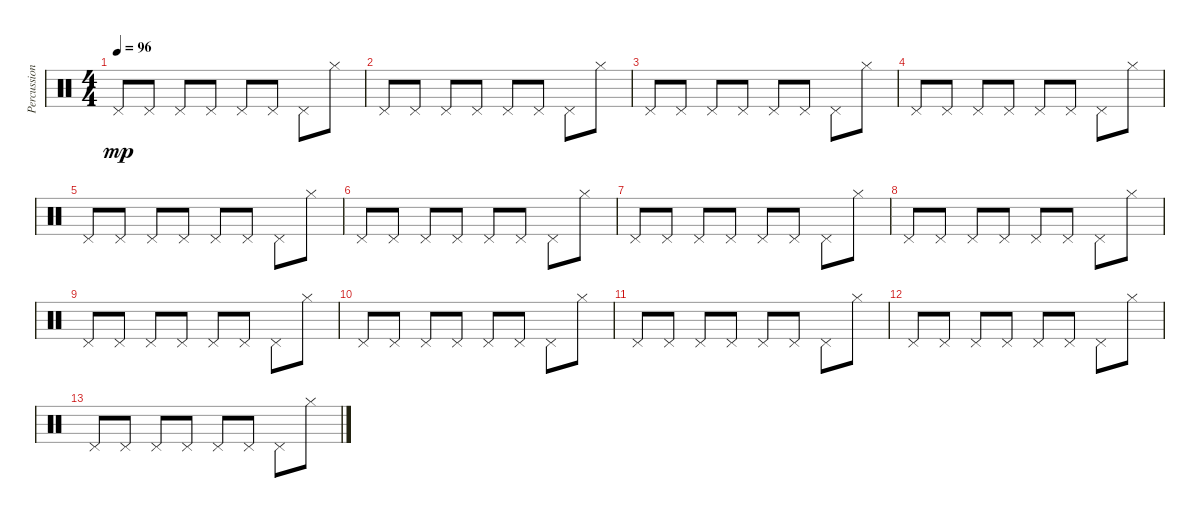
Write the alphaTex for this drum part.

\track ("Percussion" "Percussion") {instrument percussion}
\staff {score}
\articulation defaults
\ts (4 4)
\tempo 96
\clef neutral
\ks c "Pedal Hi-Hat (hit)".8{dy mp} "Pedal Hi-Hat (hit)".8 "Pedal Hi-Hat (hit)".8 "Pedal Hi-Hat (hit)".8 "Pedal Hi-Hat (hit)".8 "Pedal Hi-Hat (hit)".8 "Pedal Hi-Hat (hit)".8 "Hi-Hat (closed)".8
|
"Pedal Hi-Hat (hit)".8 "Pedal Hi-Hat (hit)".8 "Pedal Hi-Hat (hit)".8 "Pedal Hi-Hat (hit)".8 "Pedal Hi-Hat (hit)".8 "Pedal Hi-Hat (hit)".8 "Pedal Hi-Hat (hit)".8 "Hi-Hat (closed)".8 |
"Pedal Hi-Hat (hit)".8 "Pedal Hi-Hat (hit)".8 "Pedal Hi-Hat (hit)".8 "Pedal Hi-Hat (hit)".8 "Pedal Hi-Hat (hit)".8 "Pedal Hi-Hat (hit)".8 "Pedal Hi-Hat (hit)".8 "Hi-Hat (closed)".8 |
"Pedal Hi-Hat (hit)".8 "Pedal Hi-Hat (hit)".8 "Pedal Hi-Hat (hit)".8 "Pedal Hi-Hat (hit)".8 "Pedal Hi-Hat (hit)".8 "Pedal Hi-Hat (hit)".8 "Pedal Hi-Hat (hit)".8 "Hi-Hat (closed)".8 |
"Pedal Hi-Hat (hit)".8 "Pedal Hi-Hat (hit)".8 "Pedal Hi-Hat (hit)".8 "Pedal Hi-Hat (hit)".8 "Pedal Hi-Hat (hit)".8 "Pedal Hi-Hat (hit)".8 "Pedal Hi-Hat (hit)".8 "Hi-Hat (closed)".8 |
"Pedal Hi-Hat (hit)".8 "Pedal Hi-Hat (hit)".8 "Pedal Hi-Hat (hit)".8 "Pedal Hi-Hat (hit)".8 "Pedal Hi-Hat (hit)".8 "Pedal Hi-Hat (hit)".8 "Pedal Hi-Hat (hit)".8 "Hi-Hat (closed)".8 |
"Pedal Hi-Hat (hit)".8 "Pedal Hi-Hat (hit)".8 "Pedal Hi-Hat (hit)".8 "Pedal Hi-Hat (hit)".8 "Pedal Hi-Hat (hit)".8 "Pedal Hi-Hat (hit)".8 "Pedal Hi-Hat (hit)".8 "Hi-Hat (closed)".8 |
"Pedal Hi-Hat (hit)".8 "Pedal Hi-Hat (hit)".8 "Pedal Hi-Hat (hit)".8 "Pedal Hi-Hat (hit)".8 "Pedal Hi-Hat (hit)".8 "Pedal Hi-Hat (hit)".8 "Pedal Hi-Hat (hit)".8 "Hi-Hat (closed)".8 |
"Pedal Hi-Hat (hit)".8 "Pedal Hi-Hat (hit)".8 "Pedal Hi-Hat (hit)".8 "Pedal Hi-Hat (hit)".8 "Pedal Hi-Hat (hit)".8 "Pedal Hi-Hat (hit)".8 "Pedal Hi-Hat (hit)".8 "Hi-Hat (closed)".8 |
"Pedal Hi-Hat (hit)".8 "Pedal Hi-Hat (hit)".8 "Pedal Hi-Hat (hit)".8 "Pedal Hi-Hat (hit)".8 "Pedal Hi-Hat (hit)".8 "Pedal Hi-Hat (hit)".8 "Pedal Hi-Hat (hit)".8 "Hi-Hat (closed)".8 |
"Pedal Hi-Hat (hit)".8 "Pedal Hi-Hat (hit)".8 "Pedal Hi-Hat (hit)".8 "Pedal Hi-Hat (hit)".8 "Pedal Hi-Hat (hit)".8 "Pedal Hi-Hat (hit)".8 "Pedal Hi-Hat (hit)".8 "Hi-Hat (closed)".8 |
"Pedal Hi-Hat (hit)".8 "Pedal Hi-Hat (hit)".8 "Pedal Hi-Hat (hit)".8 "Pedal Hi-Hat (hit)".8 "Pedal Hi-Hat (hit)".8 "Pedal Hi-Hat (hit)".8 "Pedal Hi-Hat (hit)".8 "Hi-Hat (closed)".8 |
"Pedal Hi-Hat (hit)".8 "Pedal Hi-Hat (hit)".8 "Pedal Hi-Hat (hit)".8 "Pedal Hi-Hat (hit)".8 "Pedal Hi-Hat (hit)".8 "Pedal Hi-Hat (hit)".8 "Pedal Hi-Hat (hit)".8 "Hi-Hat (closed)".8
